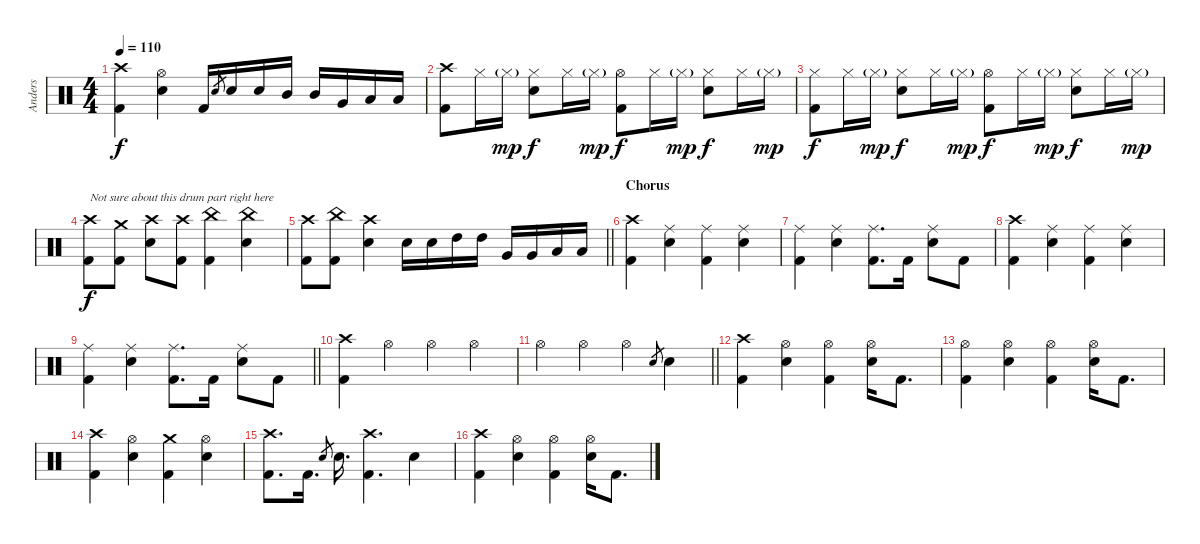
\track ("Anders" "Anders") {instrument percussion}
\staff {score}
\articulation defaults
\ts (4 4)
\tempo 110
\clef neutral
\ks c
("Crash high (hit)" "Kick (hit) 2").4{dy f} ("Hi-Hat (open)" "Snare (hit) 2").4 "Kick (hit) 2".16 "Snare (hit) 2".8{gr} "Snare (hit) 2".16 "Snare (hit) 2".16 "Mid Tom (hit)".16 "Mid Tom (hit)".16 "Very Low Tom (hit)".16 "Low Floor Tom (hit)".16 "Low Floor Tom (hit)".16 |
("Crash high (hit)" "Kick (hit) 2").8 "Hi-Hat (closed)".16 "Hi-Hat (closed)"{g}.16{dy mp} ("Hi-Hat (closed)" "Snare (hit) 2").8{dy f} "Hi-Hat (closed)".16 "Hi-Hat (closed)"{g}.16{dy mp} ("Hi-Hat (open)" "Kick (hit) 2").8{dy f} "Hi-Hat (closed)".16 "Hi-Hat (closed)"{g}.16{dy mp} ("Hi-Hat (closed)" "Snare (hit) 2").8{dy f} "Hi-Hat (closed)".16 "Hi-Hat (closed)"{g}.16{dy mp} |
("Hi-Hat (closed)" "Kick (hit) 2").8{dy f} "Hi-Hat (closed)".16 "Hi-Hat (closed)"{g}.16{dy mp} ("Hi-Hat (closed)" "Snare (hit) 2").8{dy f} "Hi-Hat (closed)".16 "Hi-Hat (closed)"{g}.16{dy mp} ("Hi-Hat (open)" "Kick (hit) 2").8{dy f} "Hi-Hat (closed)".16 "Hi-Hat (closed)"{g}.16{dy mp} ("Hi-Hat (closed)" "Snare (hit) 2").8{dy f} "Hi-Hat (closed)".16 "Hi-Hat (closed)"{g}.16{dy mp} |
("Crash high (hit)" "Kick (hit) 2").8{txt "Not sure about this drum part right here" dy f} ("Crash medium (hit)" "Kick (hit) 2").8 ("Crash high (hit)" "Snare (hit) 2").8 ("Crash high (hit)" "Kick (hit) 2").8 ("China (hit)" "Kick (hit) 2").4 ("China (hit)" "Snare (hit) 2").4 |
\barLineRight lightlight
("Crash high (hit)" "Kick (hit) 2").8 ("China (hit)" "Kick (hit) 2").8 ("Crash high (hit)" "Snare (hit) 2").4 "Snare (hit) 2".16 "Snare (hit) 2".16 "High Tom (hit)".16 "High Tom (hit)".16 "Very Low Tom (hit)".16 "Very Low Tom (hit)".16 "Low Floor Tom (hit)".16 "Low Floor Tom (hit)".16 |
\section ("" "Chorus")
("Crash high (hit)" "Kick (hit) 2").4 ("Ride (middle)" "Snare (hit) 2").4 ("Ride (middle)" "Kick (hit) 2").4 ("Ride (middle)" "Snare (hit) 2").4 |
("Ride (middle)" "Kick (hit) 2").4 ("Ride (middle)" "Snare (hit) 2").4 ("Ride (middle)" "Kick (hit) 2").8{d} "Kick (hit) 2".16 ("Ride (middle)" "Snare (hit) 2").8 "Kick (hit) 2".8 |
("Crash high (hit)" "Kick (hit) 2").4 ("Ride (middle)" "Snare (hit) 2").4 ("Ride (middle)" "Kick (hit) 2").4 ("Ride (middle)" "Snare (hit) 2").4 |
\barLineRight lightlight
("Ride (middle)" "Kick (hit) 2").4 ("Ride (middle)" "Snare (hit) 2").4 ("Ride (middle)" "Kick (hit) 2").8{d} "Kick (hit) 2".16 ("Ride (middle)" "Snare (hit) 2").8 "Kick (hit) 2".8 |
("Crash high (hit)" "Kick (hit) 2").4 "Hi-Hat (open)".4 "Hi-Hat (open)".4 "Hi-Hat (open)".4 |
\barLineRight lightlight "Hi-Hat (open)".4 "Hi-Hat (open)".4 "Hi-Hat (open)".4 "Snare (hit) 2".8{gr} "Snare (hit) 2".4
|
("Crash high (hit)" "Kick (hit) 2").4 ("Hi-Hat (open)" "Snare (hit) 2").4 ("Hi-Hat (open)" "Kick (hit) 2").4 ("Hi-Hat (open)" "Snare (hit) 2").16 "Kick (hit) 2".8{d} |
("Hi-Hat (open)" "Kick (hit) 2").4 ("Hi-Hat (open)" "Snare (hit) 2").4 ("Hi-Hat (open)" "Kick (hit) 2").4 ("Hi-Hat (open)" "Snare (hit) 2").16 "Kick (hit) 2".8{d} |
("Crash high (hit)" "Kick (hit) 2").4 ("Hi-Hat (open)" "Snare (hit) 2").4 ("Crash medium (hit)" "Kick (hit) 2").4 ("Hi-Hat (open)" "Snare (hit) 2").4 |
("Crash high (hit)" "Kick (hit) 2").8{d} "Kick (hit) 2".16{d} "Snare (hit) 2".8{gr} "Snare (hit) 2".16{d} ("Crash high (hit)" "Kick (hit) 2").4{d} "Snare (hit) 2".4 |
("Crash high (hit)" "Kick (hit) 2").4 ("Hi-Hat (open)" "Snare (hit) 2").4 ("Hi-Hat (open)" "Kick (hit) 2").4 ("Hi-Hat (open)" "Snare (hit) 2").16 "Kick (hit) 2".8{d}
